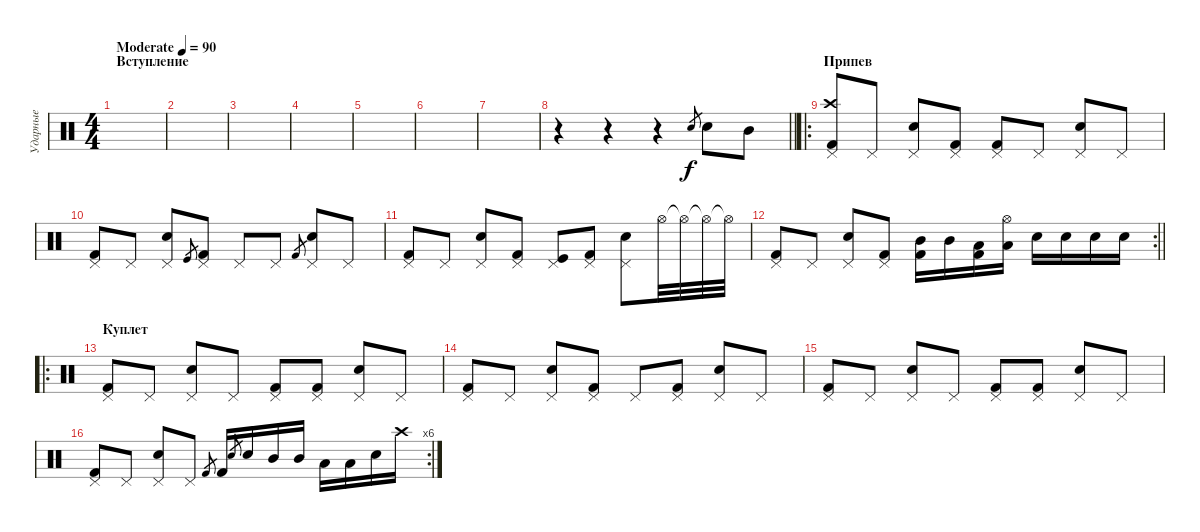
\track ("Ударные" "Ударные") {instrument percussion}
\staff {score}
\articulation defaults
\ts (4 4)
\section ("" "Вступление")
\tempo (90 "Moderate")
\clef neutral
\ks c
|
|
|
|
|
|
|
\barLineRight lightlight
r.4 r.4 r.4 "Electric Snare (hit)".8{gr} "Snare (hit) 2".8 "Mid Tom (hit)".8 |
\ro
\section ("" "Припев")
("Pedal Hi-Hat (hit)" "Crash high (hit)" "Kick (hit) 2").8 "Pedal Hi-Hat (hit)".8 ("Pedal Hi-Hat (hit)" "Snare (hit) 2").8 ("Pedal Hi-Hat (hit)" "Kick (hit) 2").8 ("Pedal Hi-Hat (hit)" "Kick (hit) 2").8 "Pedal Hi-Hat (hit)".8 ("Pedal Hi-Hat (hit)" "Snare (hit) 2").8 "Pedal Hi-Hat (hit)".8 |
("Pedal Hi-Hat (hit)" "Kick (hit) 2").8 "Pedal Hi-Hat (hit)".8 ("Pedal Hi-Hat (hit)" "Snare (hit) 2").8 "Kick (hit)".8{gr} ("Pedal Hi-Hat (hit)" "Kick (hit) 2").8 "Pedal Hi-Hat (hit)".8 "Pedal Hi-Hat (hit)".8 "Kick (hit) 2".8{gr} ("Pedal Hi-Hat (hit)" "Snare (hit) 2").8 "Pedal Hi-Hat (hit)".8 |
("Pedal Hi-Hat (hit)" "Kick (hit) 2").8 "Pedal Hi-Hat (hit)".8 ("Pedal Hi-Hat (hit)" "Snare (hit) 2").8 ("Pedal Hi-Hat (hit)" "Kick (hit) 2").8 ("Pedal Hi-Hat (hit)" "Kick (hit)").8 ("Pedal Hi-Hat (hit)" "Kick (hit) 2").8 ("Pedal Hi-Hat (hit)" "Snare (hit) 2").8 "Hi-Hat (open)".32 "Hi-Hat (open)"{t}.32 "Hi-Hat (open)"{t}.32 "Hi-Hat (open)"{t}.32 |
\rc 2
\barLineRight lightlight
("Pedal Hi-Hat (hit)" "Kick (hit) 2").8 "Pedal Hi-Hat (hit)".8 ("Pedal Hi-Hat (hit)" "Snare (hit) 2").8 ("Pedal Hi-Hat (hit)" "Kick (hit) 2").8 ("Mid Tom (hit)" "Kick (hit) 2").16 "Mid Tom (hit)".16 ("Low Tom (hit)" "Kick (hit) 2").16 ("Low Tom (hit)" "Hi-Hat (open)").16 "Snare (hit) 2".16 "Snare (hit) 2".16 "Electric Snare (hit)".16 "Electric Snare (hit)".16 |
\ro
\section ("" "Куплет")
("Pedal Hi-Hat (hit)" "Kick (hit) 2").8 "Pedal Hi-Hat (hit)".8 ("Pedal Hi-Hat (hit)" "Snare (hit) 2").8 "Pedal Hi-Hat (hit)".8 ("Pedal Hi-Hat (hit)" "Kick (hit) 2").8 ("Pedal Hi-Hat (hit)" "Kick (hit) 2").8 ("Pedal Hi-Hat (hit)" "Snare (hit) 2").8 "Pedal Hi-Hat (hit)".8 |
("Pedal Hi-Hat (hit)" "Kick (hit) 2").8 "Pedal Hi-Hat (hit)".8 ("Pedal Hi-Hat (hit)" "Snare (hit) 2").8 ("Pedal Hi-Hat (hit)" "Kick (hit) 2").8 "Pedal Hi-Hat (hit)".8 ("Pedal Hi-Hat (hit)" "Kick (hit) 2").8 ("Pedal Hi-Hat (hit)" "Snare (hit) 2").8 "Pedal Hi-Hat (hit)".8 |
("Pedal Hi-Hat (hit)" "Kick (hit) 2").8 "Pedal Hi-Hat (hit)".8 ("Pedal Hi-Hat (hit)" "Snare (hit) 2").8 "Pedal Hi-Hat (hit)".8 ("Pedal Hi-Hat (hit)" "Kick (hit) 2").8 ("Pedal Hi-Hat (hit)" "Kick (hit) 2").8 ("Pedal Hi-Hat (hit)" "Snare (hit) 2").8 "Pedal Hi-Hat (hit)".8 |
\rc 6
("Pedal Hi-Hat (hit)" "Kick (hit) 2").8 "Pedal Hi-Hat (hit)".8 ("Pedal Hi-Hat (hit)" "Snare (hit) 2").8 "Pedal Hi-Hat (hit)".8 "Kick (hit) 2".8{gr} "Kick (hit) 2".16 "Electric Snare (hit)".8{gr} "Snare (hit) 2".16 "Mid Tom (hit)".16 "Mid Tom (hit)".16 "Low Tom (hit)".16 "Low Tom (hit)".16 "Snare (hit) 2".16 "Crash high (hit)".16
